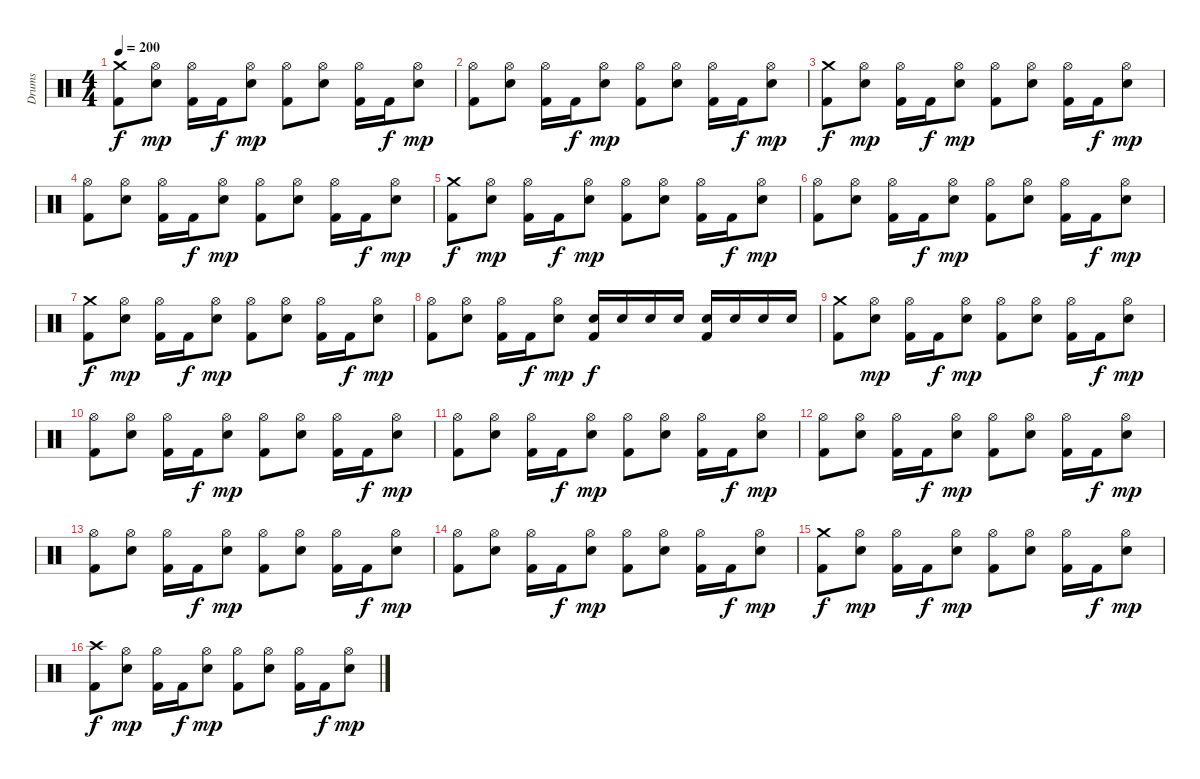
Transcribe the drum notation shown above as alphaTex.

\track ("Drums" "Drums") {instrument percussion}
\staff {score}
\articulation defaults
\ts (4 4)
\tempo 200
\clef neutral
\ks c
("Crash medium (hit)" "Kick (hit) 2").8{dy f} ("Hi-Hat (open)" "Snare (hit) 2").8{dy mp} ("Hi-Hat (open)" "Kick (hit) 2").16 "Kick (hit) 2".16{dy f} ("Hi-Hat (open)" "Snare (hit) 2").8{dy mp} ("Hi-Hat (open)" "Kick (hit) 2").8 ("Hi-Hat (open)" "Snare (hit) 2").8 ("Hi-Hat (open)" "Kick (hit) 2").16 "Kick (hit) 2".16{dy f} ("Hi-Hat (open)" "Snare (hit) 2").8{dy mp} |
("Hi-Hat (open)" "Kick (hit) 2").8 ("Hi-Hat (open)" "Snare (hit) 2").8 ("Hi-Hat (open)" "Kick (hit) 2").16 "Kick (hit) 2".16{dy f} ("Hi-Hat (open)" "Snare (hit) 2").8{dy mp} ("Hi-Hat (open)" "Kick (hit) 2").8 ("Hi-Hat (open)" "Snare (hit) 2").8 ("Hi-Hat (open)" "Kick (hit) 2").16 "Kick (hit) 2".16{dy f} ("Hi-Hat (open)" "Snare (hit) 2").8{dy mp} |
("Crash medium (hit)" "Kick (hit) 2").8{dy f} ("Hi-Hat (open)" "Snare (hit) 2").8{dy mp} ("Hi-Hat (open)" "Kick (hit) 2").16 "Kick (hit) 2".16{dy f} ("Hi-Hat (open)" "Snare (hit) 2").8{dy mp} ("Hi-Hat (open)" "Kick (hit) 2").8 ("Hi-Hat (open)" "Snare (hit) 2").8 ("Hi-Hat (open)" "Kick (hit) 2").16 "Kick (hit) 2".16{dy f} ("Hi-Hat (open)" "Snare (hit) 2").8{dy mp} |
("Hi-Hat (open)" "Kick (hit) 2").8 ("Hi-Hat (open)" "Snare (hit) 2").8 ("Hi-Hat (open)" "Kick (hit) 2").16 "Kick (hit) 2".16{dy f} ("Hi-Hat (open)" "Snare (hit) 2").8{dy mp} ("Hi-Hat (open)" "Kick (hit) 2").8 ("Hi-Hat (open)" "Snare (hit) 2").8 ("Hi-Hat (open)" "Kick (hit) 2").16 "Kick (hit) 2".16{dy f} ("Hi-Hat (open)" "Snare (hit) 2").8{dy mp} |
("Crash medium (hit)" "Kick (hit) 2").8{dy f} ("Hi-Hat (open)" "Snare (hit) 2").8{dy mp} ("Hi-Hat (open)" "Kick (hit) 2").16 "Kick (hit) 2".16{dy f} ("Hi-Hat (open)" "Snare (hit) 2").8{dy mp} ("Hi-Hat (open)" "Kick (hit) 2").8 ("Hi-Hat (open)" "Snare (hit) 2").8 ("Hi-Hat (open)" "Kick (hit) 2").16 "Kick (hit) 2".16{dy f} ("Hi-Hat (open)" "Snare (hit) 2").8{dy mp} |
("Hi-Hat (open)" "Kick (hit) 2").8 ("Hi-Hat (open)" "Snare (hit) 2").8 ("Hi-Hat (open)" "Kick (hit) 2").16 "Kick (hit) 2".16{dy f} ("Hi-Hat (open)" "Snare (hit) 2").8{dy mp} ("Hi-Hat (open)" "Kick (hit) 2").8 ("Hi-Hat (open)" "Snare (hit) 2").8 ("Hi-Hat (open)" "Kick (hit) 2").16 "Kick (hit) 2".16{dy f} ("Hi-Hat (open)" "Snare (hit) 2").8{dy mp} |
("Crash medium (hit)" "Kick (hit) 2").8{dy f} ("Hi-Hat (open)" "Snare (hit) 2").8{dy mp} ("Hi-Hat (open)" "Kick (hit) 2").16 "Kick (hit) 2".16{dy f} ("Hi-Hat (open)" "Snare (hit) 2").8{dy mp} ("Hi-Hat (open)" "Kick (hit) 2").8 ("Hi-Hat (open)" "Snare (hit) 2").8 ("Hi-Hat (open)" "Kick (hit) 2").16 "Kick (hit) 2".16{dy f} ("Hi-Hat (open)" "Snare (hit) 2").8{dy mp} |
("Hi-Hat (open)" "Kick (hit) 2").8 ("Hi-Hat (open)" "Snare (hit) 2").8 ("Hi-Hat (open)" "Kick (hit) 2").16 "Kick (hit) 2".16{dy f} ("Hi-Hat (open)" "Snare (hit) 2").8{dy mp} ("Snare (hit) 2" "Kick (hit) 2").16{dy f} "Snare (hit) 2".16 "Snare (hit) 2".16 "Snare (hit) 2".16 ("Snare (hit) 2" "Kick (hit) 2").16 "Snare (hit) 2".16 "Snare (hit) 2".16 "Snare (hit) 2".16 |
("Crash medium (hit)" "Kick (hit) 2").8 ("Hi-Hat (open)" "Snare (hit) 2").8{dy mp} ("Hi-Hat (open)" "Kick (hit) 2").16 "Kick (hit) 2".16{dy f} ("Hi-Hat (open)" "Snare (hit) 2").8{dy mp} ("Hi-Hat (open)" "Kick (hit) 2").8 ("Hi-Hat (open)" "Snare (hit) 2").8 ("Hi-Hat (open)" "Kick (hit) 2").16 "Kick (hit) 2".16{dy f} ("Hi-Hat (open)" "Snare (hit) 2").8{dy mp} |
("Hi-Hat (open)" "Kick (hit) 2").8 ("Hi-Hat (open)" "Snare (hit) 2").8 ("Hi-Hat (open)" "Kick (hit) 2").16 "Kick (hit) 2".16{dy f} ("Hi-Hat (open)" "Snare (hit) 2").8{dy mp} ("Hi-Hat (open)" "Kick (hit) 2").8 ("Hi-Hat (open)" "Snare (hit) 2").8 ("Hi-Hat (open)" "Kick (hit) 2").16 "Kick (hit) 2".16{dy f} ("Hi-Hat (open)" "Snare (hit) 2").8{dy mp} |
("Hi-Hat (open)" "Kick (hit) 2").8 ("Hi-Hat (open)" "Snare (hit) 2").8 ("Hi-Hat (open)" "Kick (hit) 2").16 "Kick (hit) 2".16{dy f} ("Hi-Hat (open)" "Snare (hit) 2").8{dy mp} ("Hi-Hat (open)" "Kick (hit) 2").8 ("Hi-Hat (open)" "Snare (hit) 2").8 ("Hi-Hat (open)" "Kick (hit) 2").16 "Kick (hit) 2".16{dy f} ("Hi-Hat (open)" "Snare (hit) 2").8{dy mp} |
("Hi-Hat (open)" "Kick (hit) 2").8 ("Hi-Hat (open)" "Snare (hit) 2").8 ("Hi-Hat (open)" "Kick (hit) 2").16 "Kick (hit) 2".16{dy f} ("Hi-Hat (open)" "Snare (hit) 2").8{dy mp} ("Hi-Hat (open)" "Kick (hit) 2").8 ("Hi-Hat (open)" "Snare (hit) 2").8 ("Hi-Hat (open)" "Kick (hit) 2").16 "Kick (hit) 2".16{dy f} ("Hi-Hat (open)" "Snare (hit) 2").8{dy mp} |
("Hi-Hat (open)" "Kick (hit) 2").8 ("Hi-Hat (open)" "Snare (hit) 2").8 ("Hi-Hat (open)" "Kick (hit) 2").16 "Kick (hit) 2".16{dy f} ("Hi-Hat (open)" "Snare (hit) 2").8{dy mp} ("Hi-Hat (open)" "Kick (hit) 2").8 ("Hi-Hat (open)" "Snare (hit) 2").8 ("Hi-Hat (open)" "Kick (hit) 2").16 "Kick (hit) 2".16{dy f} ("Hi-Hat (open)" "Snare (hit) 2").8{dy mp} |
("Hi-Hat (open)" "Kick (hit) 2").8 ("Hi-Hat (open)" "Snare (hit) 2").8 ("Hi-Hat (open)" "Kick (hit) 2").16 "Kick (hit) 2".16{dy f} ("Hi-Hat (open)" "Snare (hit) 2").8{dy mp} ("Hi-Hat (open)" "Kick (hit) 2").8 ("Hi-Hat (open)" "Snare (hit) 2").8 ("Hi-Hat (open)" "Kick (hit) 2").16 "Kick (hit) 2".16{dy f} ("Hi-Hat (open)" "Snare (hit) 2").8{dy mp} |
("Crash medium (hit)" "Kick (hit) 2").8{dy f} ("Hi-Hat (open)" "Snare (hit) 2").8{dy mp} ("Hi-Hat (open)" "Kick (hit) 2").16 "Kick (hit) 2".16{dy f} ("Hi-Hat (open)" "Snare (hit) 2").8{dy mp} ("Hi-Hat (open)" "Kick (hit) 2").8 ("Hi-Hat (open)" "Snare (hit) 2").8 ("Hi-Hat (open)" "Kick (hit) 2").16 "Kick (hit) 2".16{dy f} ("Hi-Hat (open)" "Snare (hit) 2").8{dy mp} |
("Crash high (hit)" "Kick (hit) 2").8{dy f} ("Hi-Hat (open)" "Snare (hit) 2").8{dy mp} ("Hi-Hat (open)" "Kick (hit) 2").16 "Kick (hit) 2".16{dy f} ("Hi-Hat (open)" "Snare (hit) 2").8{dy mp} ("Hi-Hat (open)" "Kick (hit) 2").8 ("Hi-Hat (open)" "Snare (hit) 2").8 ("Hi-Hat (open)" "Kick (hit) 2").16 "Kick (hit) 2".16{dy f} ("Hi-Hat (open)" "Snare (hit) 2").8{dy mp}
